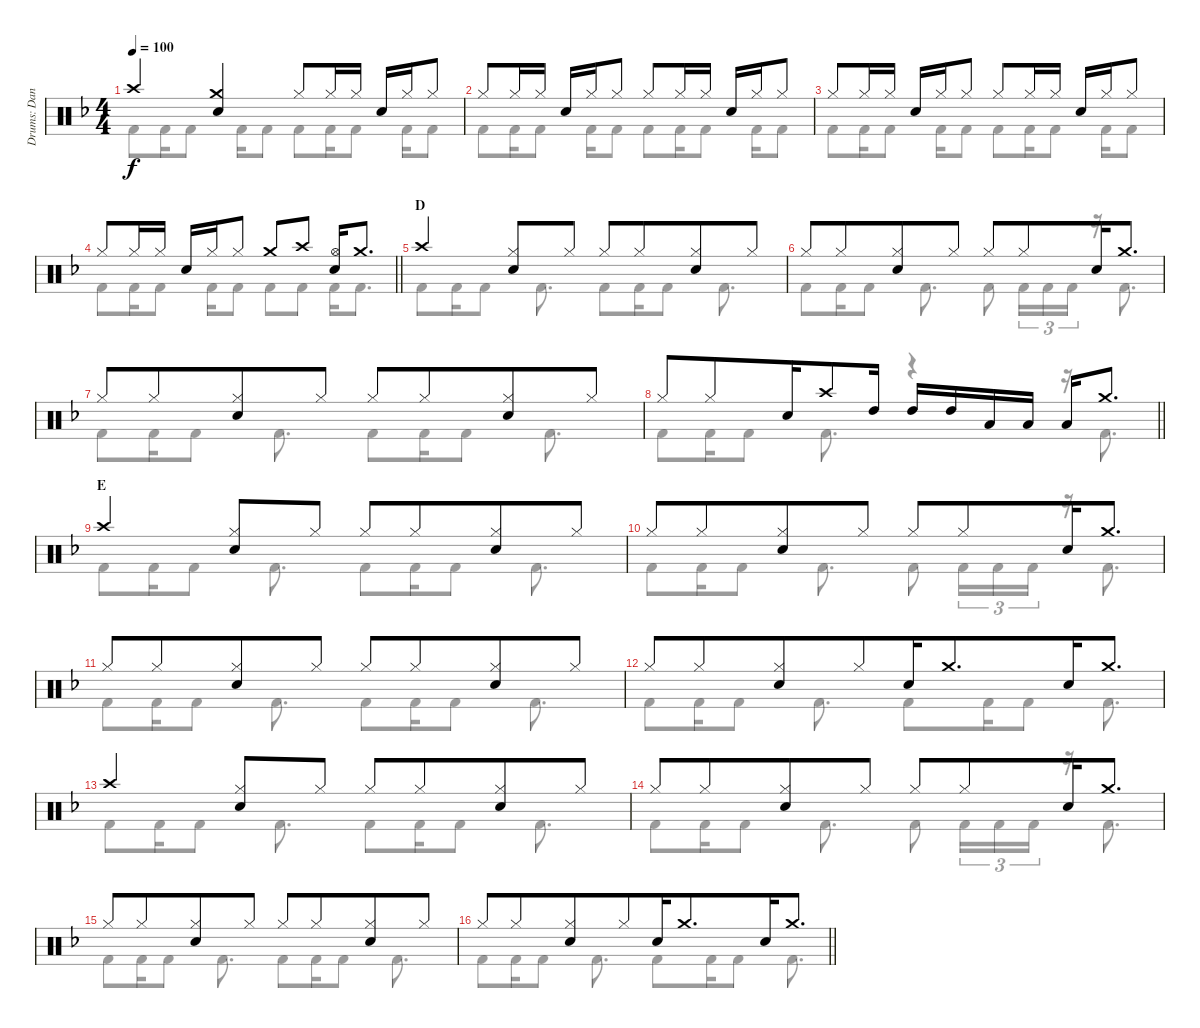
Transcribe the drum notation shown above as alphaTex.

\track ("Drums: Dana" "Drums: Dan") {instrument percussion}
\staff {score}
\articulation defaults
\voice
\ts (4 4)
\tempo 100
\clef neutral
\ks f "Crash high (hit)".4{dy f}
("Crash medium (hit)" "Snare (hit) 2").4 "Hi-Hat (closed)".8 "Hi-Hat (closed)".16 "Hi-Hat (closed)".16 "Snare (hit) 2".16 "Hi-Hat (closed)".16 "Hi-Hat (closed)".8 |
"Hi-Hat (closed)".8 "Hi-Hat (closed)".16 "Hi-Hat (closed)".16 "Snare (hit) 2".16 "Hi-Hat (closed)".16 "Hi-Hat (closed)".8 "Hi-Hat (closed)".8 "Hi-Hat (closed)".16 "Hi-Hat (closed)".16 "Snare (hit) 2".16 "Hi-Hat (closed)".16 "Hi-Hat (closed)".8 |
"Hi-Hat (closed)".8 "Hi-Hat (closed)".16 "Hi-Hat (closed)".16 "Snare (hit) 2".16 "Hi-Hat (closed)".16 "Hi-Hat (closed)".8 "Hi-Hat (closed)".8 "Hi-Hat (closed)".16 "Hi-Hat (closed)".16 "Snare (hit) 2".16 "Hi-Hat (closed)".16 "Hi-Hat (closed)".8 |
\barLineRight lightlight "Hi-Hat (closed)".8 "Hi-Hat (closed)".16 "Hi-Hat (closed)".16 "Snare (hit) 2".16 "Hi-Hat (closed)".16 "Hi-Hat (closed)".8 "Crash medium (hit)".8 "Crash high (hit)".8
("Hi-Hat (open)" "Snare (hit) 2").16 "Crash medium (hit)".8{d} |
\section ("" "D")
"Crash high (hit)".4 ("Hi-Hat (closed)" "Snare (hit) 2").8 "Hi-Hat (closed)".8 "Hi-Hat (closed)".8 "Hi-Hat (closed)".8{beam merge} ("Hi-Hat (closed)" "Snare (hit) 2").8 "Hi-Hat (closed)".8 |
"Hi-Hat (closed)".8 "Hi-Hat (closed)".8{beam merge} ("Hi-Hat (closed)" "Snare (hit) 2").8 "Hi-Hat (closed)".8 "Hi-Hat (closed)".8 "Hi-Hat (closed)".8{beam merge} "Snare (hit) 2".16 "Crash medium (hit)".8{d} |
"Hi-Hat (closed)".8 "Hi-Hat (closed)".8{beam merge} ("Hi-Hat (closed)" "Snare (hit) 2").8 "Hi-Hat (closed)".8 "Hi-Hat (closed)".8 "Hi-Hat (closed)".8{beam merge} ("Hi-Hat (closed)" "Snare (hit) 2").8 "Hi-Hat (closed)".8 |
\barLineRight lightlight "Hi-Hat (closed)".8 "Hi-Hat (closed)".8{beam merge} "Snare (hit) 2".16 "Crash high (hit)".8 "High Tom (hit)".16 "High Tom (hit)".16 "High Tom (hit)".16 "Low Tom (hit)".16 "Low Tom (hit)".16 "Low Tom (hit)".16 "Crash medium (hit)".8{d}
|
\section ("" "E")
"Crash high (hit)".4{beam merge} ("Hi-Hat (closed)" "Snare (hit) 2").8 "Hi-Hat (closed)".8 "Hi-Hat (closed)".8 "Hi-Hat (closed)".8{beam merge} ("Hi-Hat (closed)" "Snare (hit) 2").8 "Hi-Hat (closed)".8 |
"Hi-Hat (closed)".8 "Hi-Hat (closed)".8{beam merge} ("Hi-Hat (closed)" "Snare (hit) 2").8 "Hi-Hat (closed)".8 "Hi-Hat (closed)".8 "Hi-Hat (closed)".8{beam merge} "Snare (hit) 2".16 "Crash medium (hit)".8{d} |
"Hi-Hat (closed)".8 "Hi-Hat (closed)".8{beam merge} ("Hi-Hat (closed)" "Snare (hit) 2").8 "Hi-Hat (closed)".8 "Hi-Hat (closed)".8 "Hi-Hat (closed)".8{beam merge} ("Hi-Hat (closed)" "Snare (hit) 2").8 "Hi-Hat (closed)".8 |
"Hi-Hat (closed)".8 "Hi-Hat (closed)".8{beam merge} ("Hi-Hat (closed)" "Snare (hit) 2").8 "Hi-Hat (closed)".8{beam merge} "Snare (hit) 2".16 "Crash medium (hit)".8{d beam merge} "Snare (hit) 2".16 "Crash medium (hit)".8{d} |
"Crash high (hit)".4{beam merge} ("Hi-Hat (closed)" "Snare (hit) 2").8 "Hi-Hat (closed)".8 "Hi-Hat (closed)".8 "Hi-Hat (closed)".8{beam merge} ("Hi-Hat (closed)" "Snare (hit) 2").8 "Hi-Hat (closed)".8 |
"Hi-Hat (closed)".8 "Hi-Hat (closed)".8{beam merge} ("Hi-Hat (closed)" "Snare (hit) 2").8 "Hi-Hat (closed)".8 "Hi-Hat (closed)".8 "Hi-Hat (closed)".8{beam merge} "Snare (hit) 2".16 "Crash medium (hit)".8{d} |
"Hi-Hat (closed)".8 "Hi-Hat (closed)".8{beam merge} ("Hi-Hat (closed)" "Snare (hit) 2").8 "Hi-Hat (closed)".8 "Hi-Hat (closed)".8 "Hi-Hat (closed)".8{beam merge} ("Hi-Hat (closed)" "Snare (hit) 2").8 "Hi-Hat (closed)".8 |
\barLineRight lightlight "Hi-Hat (closed)".8 "Hi-Hat (closed)".8{beam merge}
("Hi-Hat (closed)" "Snare (hit) 2").8 "Hi-Hat (closed)".8{beam merge} "Snare (hit) 2".16 "Crash medium (hit)".8{d beam merge} "Snare (hit) 2".16 "Crash medium (hit)".8{d}
\voice
\clef neutral
\ottava regular
\simile none
\ks f "Kick (hit) 2".8{dy f} "Kick (hit) 2".16 "Kick (hit) 2".8 "Kick (hit) 2".16 "Kick (hit) 2".8 "Kick (hit) 2".8 "Kick (hit) 2".16 "Kick (hit) 2".8 "Kick (hit) 2".16 "Kick (hit) 2".8
|
"Kick (hit) 2".8 "Kick (hit) 2".16 "Kick (hit) 2".8 "Kick (hit) 2".16 "Kick (hit) 2".8 "Kick (hit) 2".8 "Kick (hit) 2".16 "Kick (hit) 2".8 "Kick (hit) 2".16 "Kick (hit) 2".8 |
"Kick (hit) 2".8 "Kick (hit) 2".16 "Kick (hit) 2".8 "Kick (hit) 2".16 "Kick (hit) 2".8 "Kick (hit) 2".8 "Kick (hit) 2".16 "Kick (hit) 2".8 "Kick (hit) 2".16 "Kick (hit) 2".8 |
\barLineRight lightlight "Kick (hit) 2".8 "Kick (hit) 2".16 "Kick (hit) 2".8 "Kick (hit) 2".16 "Kick (hit) 2".8 "Kick (hit) 2".8 "Kick (hit) 2".8 "Kick (hit) 2".16 "Kick (hit) 2".8{d}
|
"Kick (hit) 2".8 "Kick (hit) 2".16 "Kick (hit) 2".8 "Kick (hit) 2".8{d} "Kick (hit) 2".8 "Kick (hit) 2".16 "Kick (hit) 2".8 "Kick (hit) 2".8{d} |
"Kick (hit) 2".8 "Kick (hit) 2".16 "Kick (hit) 2".8 "Kick (hit) 2".8{d} "Kick (hit) 2".8 "Kick (hit) 2".16{tu (3 2)} "Kick (hit) 2".16{tu (3 2)} "Kick (hit) 2".16{tu (3 2)} r.16 "Kick (hit) 2".8{d} |
"Kick (hit) 2".8 "Kick (hit) 2".16 "Kick (hit) 2".8 "Kick (hit) 2".8{d} "Kick (hit) 2".8 "Kick (hit) 2".16 "Kick (hit) 2".8 "Kick (hit) 2".8{d} |
\barLineRight lightlight "Kick (hit) 2".8 "Kick (hit) 2".16 "Kick (hit) 2".8 "Kick (hit) 2".8{d}
r.4 r.16 "Kick (hit) 2".8{d} |
"Kick (hit) 2".8 "Kick (hit) 2".16 "Kick (hit) 2".8 "Kick (hit) 2".8{d} "Kick (hit) 2".8 "Kick (hit) 2".16 "Kick (hit) 2".8 "Kick (hit) 2".8{d} |
"Kick (hit) 2".8 "Kick (hit) 2".16 "Kick (hit) 2".8 "Kick (hit) 2".8{d} "Kick (hit) 2".8 "Kick (hit) 2".16{tu (3 2)} "Kick (hit) 2".16{tu (3 2)} "Kick (hit) 2".16{tu (3 2)} r.16 "Kick (hit) 2".8{d} |
"Kick (hit) 2".8 "Kick (hit) 2".16 "Kick (hit) 2".8 "Kick (hit) 2".8{d} "Kick (hit) 2".8 "Kick (hit) 2".16 "Kick (hit) 2".8 "Kick (hit) 2".8{d} |
"Kick (hit) 2".8 "Kick (hit) 2".16 "Kick (hit) 2".8 "Kick (hit) 2".8{d} "Kick (hit) 2".8 "Kick (hit) 2".16 "Kick (hit) 2".8 "Kick (hit) 2".8{d} |
"Kick (hit) 2".8 "Kick (hit) 2".16 "Kick (hit) 2".8 "Kick (hit) 2".8{d} "Kick (hit) 2".8 "Kick (hit) 2".16 "Kick (hit) 2".8 "Kick (hit) 2".8{d} |
"Kick (hit) 2".8 "Kick (hit) 2".16 "Kick (hit) 2".8 "Kick (hit) 2".8{d} "Kick (hit) 2".8 "Kick (hit) 2".16{tu (3 2)} "Kick (hit) 2".16{tu (3 2)} "Kick (hit) 2".16{tu (3 2)} r.16 "Kick (hit) 2".8{d} |
"Kick (hit) 2".8 "Kick (hit) 2".16 "Kick (hit) 2".8 "Kick (hit) 2".8{d} "Kick (hit) 2".8 "Kick (hit) 2".16 "Kick (hit) 2".8 "Kick (hit) 2".8{d} |
\barLineRight lightlight "Kick (hit) 2".8 "Kick (hit) 2".16 "Kick (hit) 2".8 "Kick (hit) 2".8{d} "Kick (hit) 2".8 "Kick (hit) 2".16 "Kick (hit) 2".8 "Kick (hit) 2".8{d}
